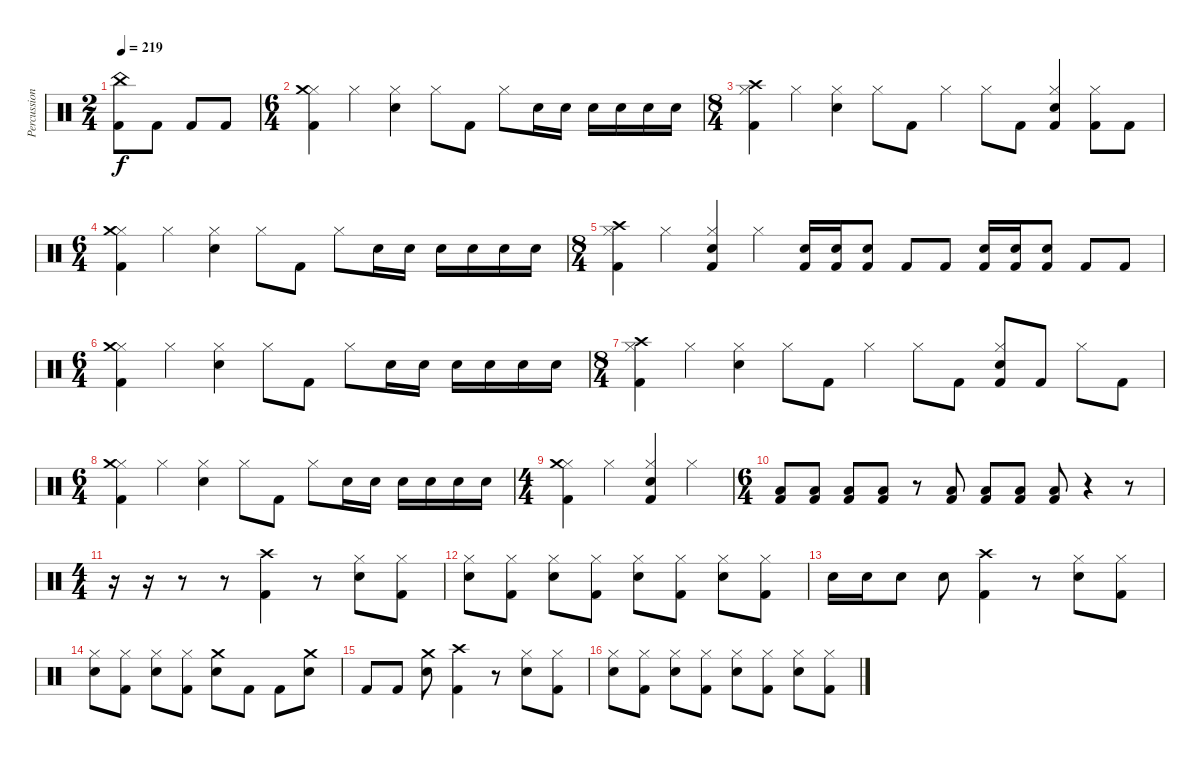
\track ("Percussion" "Percussion") {instrument percussion}
\staff {score}
\articulation defaults
\ts (2 4)
\tempo 219
\clef neutral
\ks c
("China (hit)" "Kick (hit) 2").8{dy f} "Kick (hit) 2".8 "Kick (hit) 2".8 "Kick (hit) 2".8 |
\ts (6 4)
("Hi-Hat (closed)" "Crash medium (hit)" "Kick (hit) 2").4 "Hi-Hat (closed)".4 ("Hi-Hat (closed)" "Electric Snare (hit)").4 "Hi-Hat (closed)".8 "Kick (hit) 2".8 "Hi-Hat (closed)".8 "Electric Snare (hit)".16 "Electric Snare (hit)".16 "Electric Snare (hit)".16 "Electric Snare (hit)".16 "Electric Snare (hit)".16 "Electric Snare (hit)".16 |
\ts (8 4)
("Hi-Hat (closed)" "Crash high (hit)" "Kick (hit) 2").4 "Hi-Hat (closed)".4 ("Hi-Hat (closed)" "Electric Snare (hit)").4 "Hi-Hat (closed)".8 "Kick (hit) 2".8 "Hi-Hat (closed)".4 "Hi-Hat (closed)".8 "Kick (hit) 2".8 ("Hi-Hat (closed)" "Kick (hit) 2" "Electric Snare (hit)").4 ("Hi-Hat (closed)" "Kick (hit) 2").8 "Kick (hit) 2".8 |
\ts (6 4)
("Hi-Hat (closed)" "Crash medium (hit)" "Kick (hit) 2").4 "Hi-Hat (closed)".4 ("Hi-Hat (closed)" "Electric Snare (hit)").4 "Hi-Hat (closed)".8 "Kick (hit) 2".8 "Hi-Hat (closed)".8 "Electric Snare (hit)".16 "Electric Snare (hit)".16 "Electric Snare (hit)".16 "Electric Snare (hit)".16 "Electric Snare (hit)".16 "Electric Snare (hit)".16 |
\ts (8 4)
("Hi-Hat (closed)" "Crash high (hit)" "Kick (hit) 2").4 "Hi-Hat (closed)".4 ("Hi-Hat (closed)" "Kick (hit) 2" "Electric Snare (hit)").4 "Hi-Hat (closed)".4 ("Electric Snare (hit)" "Kick (hit) 2").16 ("Electric Snare (hit)" "Kick (hit) 2").16 ("Electric Snare (hit)" "Kick (hit) 2").8 "Kick (hit) 2".8 "Kick (hit) 2".8 ("Electric Snare (hit)" "Kick (hit) 2").16 ("Electric Snare (hit)" "Kick (hit) 2").16 ("Electric Snare (hit)" "Kick (hit) 2").8 "Kick (hit) 2".8 "Kick (hit) 2".8 |
\ts (6 4)
("Hi-Hat (closed)" "Crash medium (hit)" "Kick (hit) 2").4 "Hi-Hat (closed)".4 ("Hi-Hat (closed)" "Electric Snare (hit)").4 "Hi-Hat (closed)".8 "Kick (hit) 2".8 "Hi-Hat (closed)".8 "Electric Snare (hit)".16 "Electric Snare (hit)".16 "Electric Snare (hit)".16 "Electric Snare (hit)".16 "Electric Snare (hit)".16 "Electric Snare (hit)".16 |
\ts (8 4)
("Hi-Hat (closed)" "Crash high (hit)" "Kick (hit) 2").4 "Hi-Hat (closed)".4 ("Hi-Hat (closed)" "Electric Snare (hit)").4 "Hi-Hat (closed)".8 "Kick (hit) 2".8 "Hi-Hat (closed)".4 "Hi-Hat (closed)".8 "Kick (hit) 2".8 ("Hi-Hat (closed)" "Kick (hit) 2" "Electric Snare (hit)").8 "Kick (hit) 2".8 "Hi-Hat (closed)".8 "Kick (hit) 2".8 |
\ts (6 4)
("Hi-Hat (closed)" "Crash medium (hit)" "Kick (hit) 2").4 "Hi-Hat (closed)".4 ("Hi-Hat (closed)" "Electric Snare (hit)").4 "Hi-Hat (closed)".8 "Kick (hit) 2".8 "Hi-Hat (closed)".8 "Electric Snare (hit)".16 "Electric Snare (hit)".16 "Electric Snare (hit)".16 "Electric Snare (hit)".16 "Electric Snare (hit)".16 "Electric Snare (hit)".16 |
\ts (4 4)
("Hi-Hat (closed)" "Crash medium (hit)" "Kick (hit) 2").4 "Hi-Hat (closed)".4 ("Hi-Hat (closed)" "Kick (hit) 2" "Electric Snare (hit)").4 "Hi-Hat (closed)".4 |
\ts (6 4)
("Kick (hit) 2" "Low Tom (hit)").8 ("Kick (hit) 2" "Low Tom (hit)").8 ("Kick (hit) 2" "Low Tom (hit)").8 ("Kick (hit) 2" "Low Tom (hit)").8 r.8 ("Kick (hit) 2" "Low Tom (hit)").8 ("Kick (hit) 2" "Low Tom (hit)").8 ("Kick (hit) 2" "Low Tom (hit)").8 ("Kick (hit) 2" "Low Tom (hit)").8 r.4 r.8 |
\ts (4 4)
r.16 r.16 r.8 r.8 ("Crash high (hit)" "Kick (hit) 2").4 r.8 ("Hi-Hat (closed)" "Electric Snare (hit)").8 ("Hi-Hat (closed)" "Kick (hit) 2").8 |
("Hi-Hat (closed)" "Electric Snare (hit)").8 ("Hi-Hat (closed)" "Kick (hit) 2").8 ("Hi-Hat (closed)" "Electric Snare (hit)").8 ("Hi-Hat (closed)" "Kick (hit) 2").8 ("Hi-Hat (closed)" "Electric Snare (hit)").8 ("Hi-Hat (closed)" "Kick (hit) 2").8 ("Hi-Hat (closed)" "Electric Snare (hit)").8 ("Hi-Hat (closed)" "Kick (hit) 2").8 |
"Electric Snare (hit)".16 "Electric Snare (hit)".16 "Electric Snare (hit)".8 "Electric Snare (hit)".8 ("Crash high (hit)" "Kick (hit) 2").4 r.8 ("Hi-Hat (closed)" "Electric Snare (hit)").8 ("Hi-Hat (closed)" "Kick (hit) 2").8 |
("Hi-Hat (closed)" "Electric Snare (hit)").8 ("Hi-Hat (closed)" "Kick (hit) 2").8 ("Hi-Hat (closed)" "Electric Snare (hit)").8 ("Hi-Hat (closed)" "Kick (hit) 2").8 ("Crash medium (hit)" "Electric Snare (hit)").8 "Kick (hit) 2".8 "Kick (hit) 2".8 ("Crash medium (hit)" "Electric Snare (hit)").8 |
"Kick (hit) 2".8 "Kick (hit) 2".8 ("Crash medium (hit)" "Electric Snare (hit)").8 ("Crash high (hit)" "Kick (hit) 2").4 r.8 ("Hi-Hat (closed)" "Electric Snare (hit)").8 ("Hi-Hat (closed)" "Kick (hit) 2").8 |
("Hi-Hat (closed)" "Electric Snare (hit)").8 ("Hi-Hat (closed)" "Kick (hit) 2").8 ("Hi-Hat (closed)" "Electric Snare (hit)").8 ("Hi-Hat (closed)" "Kick (hit) 2").8 ("Hi-Hat (closed)" "Electric Snare (hit)").8 ("Hi-Hat (closed)" "Kick (hit) 2").8 ("Hi-Hat (closed)" "Electric Snare (hit)").8 ("Hi-Hat (closed)" "Kick (hit) 2").8
